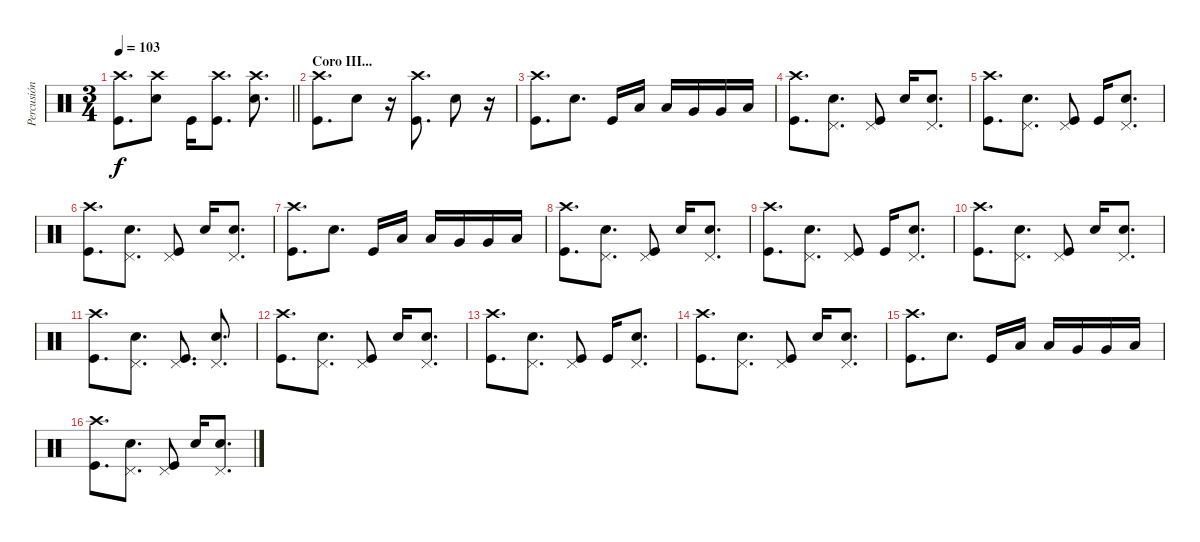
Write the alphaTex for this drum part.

\track ("Percusión" "Percusión") {instrument percussion}
\staff {score}
\articulation defaults
\ts (3 4)
\tempo 103
\clef neutral
\barLineRight lightlight
\ks c
("Crash high (hit)" "Kick (hit)").8{d dy f} ("Crash high (hit)" "Snare (hit) 2").8 "Kick (hit)".16 ("Crash high (hit)" "Kick (hit)").8{d} ("Crash high (hit)" "Snare (hit) 2").8{d} |
\section ("" "Coro III...")
("Crash high (hit)" "Kick (hit)").8{d} "Snare (hit) 2".8 r.16 ("Crash high (hit)" "Kick (hit)").8{d} "Snare (hit) 2".8 r.16 |
("Crash high (hit)" "Kick (hit)").8{d} "Snare (hit) 2".8{d} "Kick (hit)".16 "Low Tom (hit)".16 "Low Tom (hit)".16 "Very Low Tom (hit)".16 "Very Low Tom (hit)".16 "Low Floor Tom (hit)".16 |
("Crash high (hit)" "Kick (hit)").8{d} ("Pedal Hi-Hat (hit)" "Snare (hit) 2").8{d} ("Pedal Hi-Hat (hit)" "Kick (hit)").8 "Snare (hit) 2".16 ("Pedal Hi-Hat (hit)" "Snare (hit) 2").8{d} |
("Crash high (hit)" "Kick (hit)").8{d} ("Pedal Hi-Hat (hit)" "Snare (hit) 2").8{d} ("Pedal Hi-Hat (hit)" "Kick (hit)").8 "Kick (hit)".16 ("Pedal Hi-Hat (hit)" "Snare (hit) 2").8{d} |
("Crash high (hit)" "Kick (hit)").8{d} ("Pedal Hi-Hat (hit)" "Snare (hit) 2").8{d} ("Pedal Hi-Hat (hit)" "Kick (hit)").8 "Snare (hit) 2".16 ("Pedal Hi-Hat (hit)" "Snare (hit) 2").8{d} |
("Crash high (hit)" "Kick (hit)").8{d} "Snare (hit) 2".8{d} "Kick (hit)".16 "Low Tom (hit)".16 "Low Tom (hit)".16 "Very Low Tom (hit)".16 "Very Low Tom (hit)".16 "Low Floor Tom (hit)".16 |
("Crash high (hit)" "Kick (hit)").8{d} ("Pedal Hi-Hat (hit)" "Snare (hit) 2").8{d} ("Pedal Hi-Hat (hit)" "Kick (hit)").8 "Snare (hit) 2".16 ("Pedal Hi-Hat (hit)" "Snare (hit) 2").8{d} |
("Crash high (hit)" "Kick (hit)").8{d} ("Pedal Hi-Hat (hit)" "Snare (hit) 2").8{d} ("Pedal Hi-Hat (hit)" "Kick (hit)").8 "Kick (hit)".16 ("Pedal Hi-Hat (hit)" "Snare (hit) 2").8{d} |
("Crash high (hit)" "Kick (hit)").8{d} ("Pedal Hi-Hat (hit)" "Snare (hit) 2").8{d} ("Pedal Hi-Hat (hit)" "Kick (hit)").8 "Snare (hit) 2".16 ("Pedal Hi-Hat (hit)" "Snare (hit) 2").8{d} |
("Crash high (hit)" "Kick (hit)").8{d} ("Pedal Hi-Hat (hit)" "Snare (hit) 2").8{d} ("Pedal Hi-Hat (hit)" "Kick (hit)").8{d} ("Pedal Hi-Hat (hit)" "Snare (hit) 2").8{d} |
("Crash high (hit)" "Kick (hit)").8{d} ("Pedal Hi-Hat (hit)" "Snare (hit) 2").8{d} ("Pedal Hi-Hat (hit)" "Kick (hit)").8 "Snare (hit) 2".16 ("Pedal Hi-Hat (hit)" "Snare (hit) 2").8{d} |
("Crash high (hit)" "Kick (hit)").8{d} ("Pedal Hi-Hat (hit)" "Snare (hit) 2").8{d} ("Pedal Hi-Hat (hit)" "Kick (hit)").8 "Kick (hit)".16 ("Pedal Hi-Hat (hit)" "Snare (hit) 2").8{d} |
("Crash high (hit)" "Kick (hit)").8{d} ("Pedal Hi-Hat (hit)" "Snare (hit) 2").8{d} ("Pedal Hi-Hat (hit)" "Kick (hit)").8 "Snare (hit) 2".16 ("Pedal Hi-Hat (hit)" "Snare (hit) 2").8{d} |
("Crash high (hit)" "Kick (hit)").8{d} "Snare (hit) 2".8{d} "Kick (hit)".16 "Low Tom (hit)".16 "Low Tom (hit)".16 "Very Low Tom (hit)".16 "Very Low Tom (hit)".16 "Low Floor Tom (hit)".16 |
("Crash high (hit)" "Kick (hit)").8{d} ("Pedal Hi-Hat (hit)" "Snare (hit) 2").8{d} ("Pedal Hi-Hat (hit)" "Kick (hit)").8 "Snare (hit) 2".16 ("Pedal Hi-Hat (hit)" "Snare (hit) 2").8{d}
